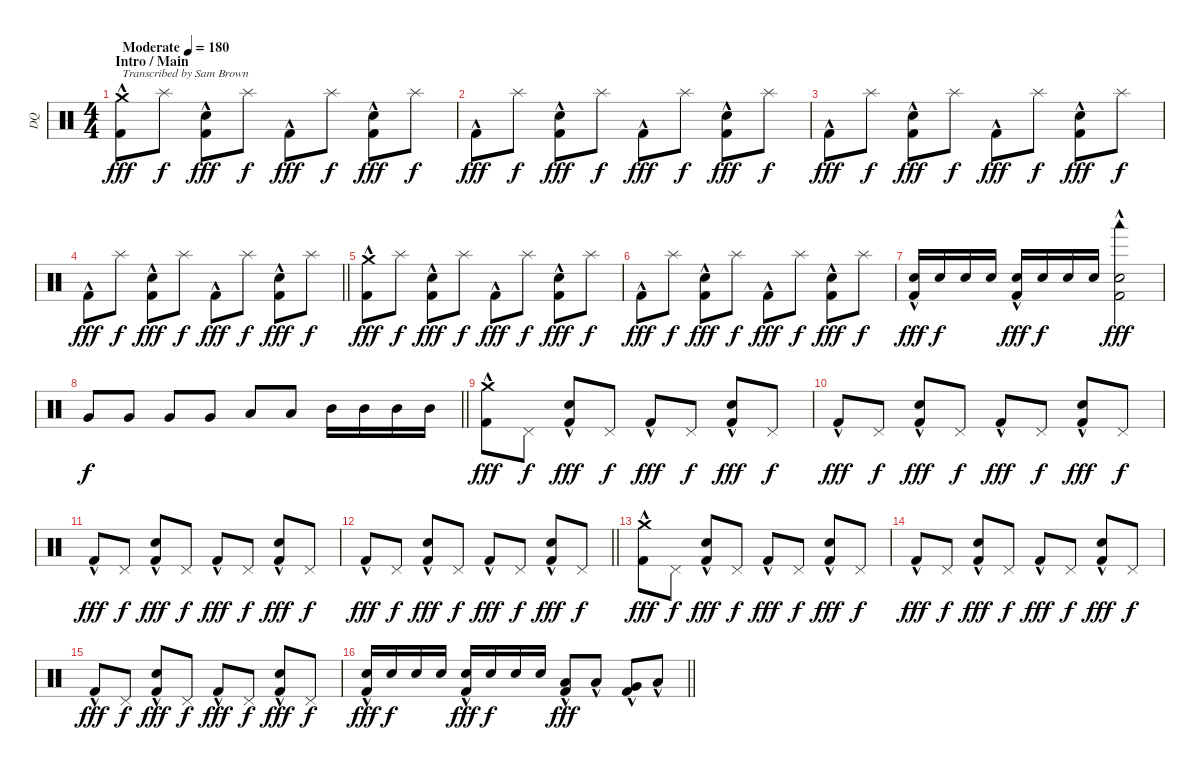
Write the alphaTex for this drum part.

\track ("DQ" "DQ") {instrument percussion}
\staff {score}
\articulation defaults
\ts (4 4)
\section ("" "Intro / Main")
\tempo (180 "Moderate")
\clef neutral
\ks c
("Kick (hit) 2"{hac} "Crash medium (hit)").8{txt "Transcribed by Sam Brown" dy fff} "Splash (hit)".8{dy f} ("Kick (hit) 2"{hac} "Snare (hit) 2"{hac}).8{dy fff} "Splash (hit)".8{dy f} "Kick (hit) 2"{hac}.8{dy fff} "Splash (hit)".8{dy f} ("Kick (hit) 2"{hac} "Snare (hit) 2"{hac}).8{dy fff} "Splash (hit)".8{dy f} |
"Kick (hit) 2"{hac}.8{dy fff} "Splash (hit)".8{dy f} ("Kick (hit) 2"{hac} "Snare (hit) 2"{hac}).8{dy fff} "Splash (hit)".8{dy f} "Kick (hit) 2"{hac}.8{dy fff} "Splash (hit)".8{dy f} ("Kick (hit) 2"{hac} "Snare (hit) 2"{hac}).8{dy fff} "Splash (hit)".8{dy f} |
"Kick (hit) 2"{hac}.8{dy fff} "Splash (hit)".8{dy f} ("Kick (hit) 2"{hac} "Snare (hit) 2"{hac}).8{dy fff} "Splash (hit)".8{dy f} "Kick (hit) 2"{hac}.8{dy fff} "Splash (hit)".8{dy f} ("Kick (hit) 2"{hac} "Snare (hit) 2"{hac}).8{dy fff} "Splash (hit)".8{dy f} |
\barLineRight lightlight "Kick (hit) 2"{hac}.8{dy fff} "Splash (hit)".8{dy f}
("Kick (hit) 2"{hac} "Snare (hit) 2"{hac}).8{dy fff} "Splash (hit)".8{dy f} "Kick (hit) 2"{hac}.8{dy fff} "Splash (hit)".8{dy f} ("Kick (hit) 2"{hac} "Snare (hit) 2"{hac}).8{dy fff} "Splash (hit)".8{dy f} |
\section ("" "")
("Kick (hit) 2"{hac} "Crash medium (hit)").8{dy fff} "Splash (hit)".8{dy f} ("Kick (hit) 2"{hac} "Snare (hit) 2"{hac}).8{dy fff} "Splash (hit)".8{dy f} "Kick (hit) 2"{hac}.8{dy fff} "Splash (hit)".8{dy f} ("Kick (hit) 2"{hac} "Snare (hit) 2"{hac}).8{dy fff} "Splash (hit)".8{dy f} |
"Kick (hit) 2"{hac}.8{dy fff} "Splash (hit)".8{dy f} ("Kick (hit) 2"{hac} "Snare (hit) 2"{hac}).8{dy fff} "Splash (hit)".8{dy f} "Kick (hit) 2"{hac}.8{dy fff} "Splash (hit)".8{dy f} ("Kick (hit) 2"{hac} "Snare (hit) 2"{hac}).8{dy fff} "Splash (hit)".8{dy f} |
("Kick (hit) 2"{hac} "Snare (hit) 2"{hac}).16{dy fff} "Snare (hit) 2".16{dy f} "Snare (hit) 2".16 "Snare (hit) 2".16 ("Kick (hit) 2"{hac} "Snare (hit) 2"{hac}).16{dy fff} "Snare (hit) 2".16{dy f} "Snare (hit) 2".16 "Snare (hit) 2".16 ("Kick (hit) 2"{hac} "Snare (hit) 2"{hac} "Woodblock low (hit)"{hac}).2{dy fff} |
\barLineRight lightlight "Very Low Tom (hit)".8{dy f} "Very Low Tom (hit)".8 "Very Low Tom (hit)".8 "Very Low Tom (hit)".8 "Low Tom (hit)".8 "Low Tom (hit)".8 "Mid Tom (hit)".16 "Mid Tom (hit)".16 "Mid Tom (hit)".16 "Mid Tom (hit)".16
|
\section ("" "")
("Kick (hit) 2"{hac} "Crash medium (hit)").8{dy fff} "Pedal Hi-Hat (hit)".8{dy f} ("Kick (hit) 2"{hac} "Snare (hit) 2"{hac}).8{dy fff} "Pedal Hi-Hat (hit)".8{dy f} "Kick (hit) 2"{hac}.8{dy fff} "Pedal Hi-Hat (hit)".8{dy f} ("Kick (hit) 2"{hac} "Snare (hit) 2"{hac}).8{dy fff} "Pedal Hi-Hat (hit)".8{dy f} |
"Kick (hit) 2"{hac}.8{dy fff} "Pedal Hi-Hat (hit)".8{dy f} ("Kick (hit) 2"{hac} "Snare (hit) 2"{hac}).8{dy fff} "Pedal Hi-Hat (hit)".8{dy f} "Kick (hit) 2"{hac}.8{dy fff} "Pedal Hi-Hat (hit)".8{dy f} ("Kick (hit) 2"{hac} "Snare (hit) 2"{hac}).8{dy fff} "Pedal Hi-Hat (hit)".8{dy f} |
"Kick (hit) 2"{hac}.8{dy fff} "Pedal Hi-Hat (hit)".8{dy f} ("Kick (hit) 2"{hac} "Snare (hit) 2"{hac}).8{dy fff} "Pedal Hi-Hat (hit)".8{dy f} "Kick (hit) 2"{hac}.8{dy fff} "Pedal Hi-Hat (hit)".8{dy f} ("Kick (hit) 2"{hac} "Snare (hit) 2"{hac}).8{dy fff} "Pedal Hi-Hat (hit)".8{dy f} |
\barLineRight lightlight "Kick (hit) 2"{hac}.8{dy fff} "Pedal Hi-Hat (hit)".8{dy f}
("Kick (hit) 2"{hac} "Snare (hit) 2"{hac}).8{dy fff} "Pedal Hi-Hat (hit)".8{dy f} "Kick (hit) 2"{hac}.8{dy fff} "Pedal Hi-Hat (hit)".8{dy f} ("Kick (hit) 2"{hac} "Snare (hit) 2"{hac}).8{dy fff} "Pedal Hi-Hat (hit)".8{dy f} |
\section ("" "")
("Kick (hit) 2"{hac} "Crash medium (hit)").8{dy fff} "Pedal Hi-Hat (hit)".8{dy f} ("Kick (hit) 2"{hac} "Snare (hit) 2"{hac}).8{dy fff} "Pedal Hi-Hat (hit)".8{dy f} "Kick (hit) 2"{hac}.8{dy fff} "Pedal Hi-Hat (hit)".8{dy f} ("Kick (hit) 2"{hac} "Snare (hit) 2"{hac}).8{dy fff} "Pedal Hi-Hat (hit)".8{dy f} |
"Kick (hit) 2"{hac}.8{dy fff} "Pedal Hi-Hat (hit)".8{dy f} ("Kick (hit) 2"{hac} "Snare (hit) 2"{hac}).8{dy fff} "Pedal Hi-Hat (hit)".8{dy f} "Kick (hit) 2"{hac}.8{dy fff} "Pedal Hi-Hat (hit)".8{dy f} ("Kick (hit) 2"{hac} "Snare (hit) 2"{hac}).8{dy fff} "Pedal Hi-Hat (hit)".8{dy f} |
"Kick (hit) 2"{hac}.8{dy fff} "Pedal Hi-Hat (hit)".8{dy f} ("Kick (hit) 2"{hac} "Snare (hit) 2"{hac}).8{dy fff} "Pedal Hi-Hat (hit)".8{dy f} "Kick (hit) 2"{hac}.8{dy fff} "Pedal Hi-Hat (hit)".8{dy f} ("Kick (hit) 2"{hac} "Snare (hit) 2"{hac}).8{dy fff} "Pedal Hi-Hat (hit)".8{dy f} |
\barLineRight lightlight
("Kick (hit) 2"{hac} "Snare (hit) 2").16{dy fff} "Snare (hit) 2".16{dy f} "Snare (hit) 2".16 "Snare (hit) 2".16 ("Kick (hit) 2"{hac} "Snare (hit) 2"{hac}).16{dy fff} "Snare (hit) 2".16{dy f} "Snare (hit) 2".16 "Snare (hit) 2".16 ("Kick (hit) 2"{hac} "Low Tom (hit)"{hac}).8{dy fff} "Low Tom (hit)"{hac}.8 ("Kick (hit) 2"{hac} "Very Low Tom (hit)").8 "Low Floor Tom (hit)"{hac}.8
